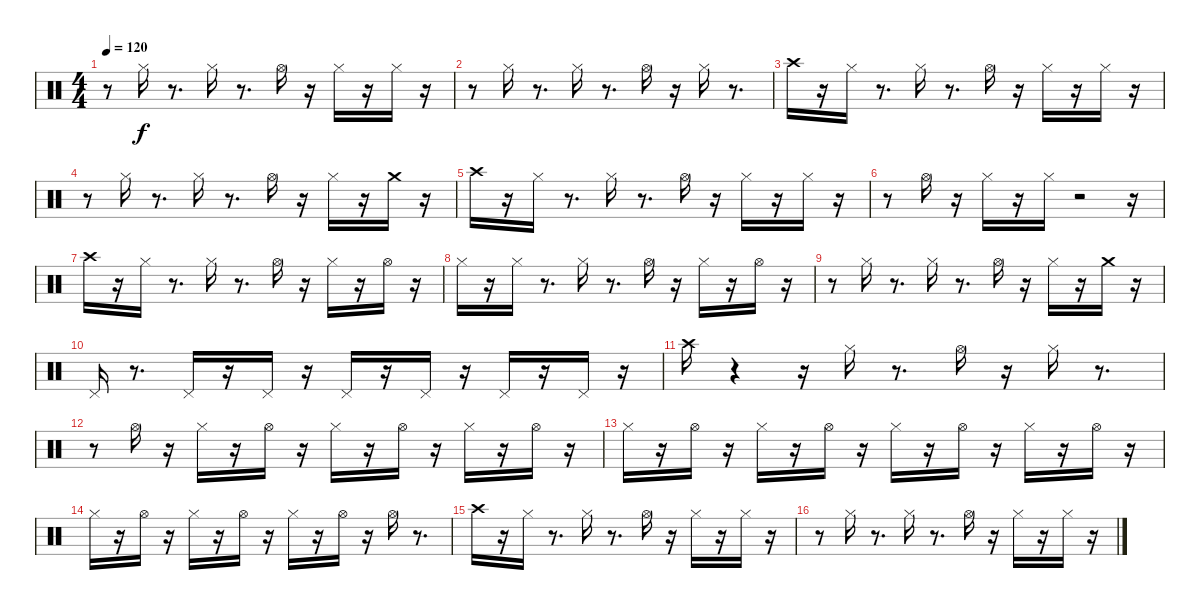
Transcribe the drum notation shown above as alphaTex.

\track "" {instrument percussion}
\staff {score}
\articulation defaults
\ts (4 4)
\tempo 120
\clef neutral
\ks c
r.8{dy f} "Hi-Hat (closed)".16 r.8{d} "Hi-Hat (closed)".16 r.8{d} "Hi-Hat (open)".16 r.16 "Hi-Hat (closed)".16 r.16 "Hi-Hat (closed)".16 r.16 |
r.8 "Hi-Hat (closed)".16 r.8{d} "Hi-Hat (closed)".16 r.8{d} "Hi-Hat (open)".16 r.16 "Hi-Hat (closed)".16 r.8{d} |
"Crash high (hit)".16 r.16 "Hi-Hat (closed)".16 r.8{d} "Hi-Hat (closed)".16 r.8{d} "Hi-Hat (open)".16 r.16 "Hi-Hat (closed)".16 r.16 "Hi-Hat (closed)".16 r.16 |
r.8 "Hi-Hat (closed)".16 r.8{d} "Hi-Hat (closed)".16 r.8{d} "Hi-Hat (open)".16 r.16 "Hi-Hat (closed)".16 r.16 "Crash medium (hit)".16 r.16 |
"Crash high (hit)".16 r.16 "Hi-Hat (closed)".16 r.8{d} "Hi-Hat (closed)".16 r.8{d} "Hi-Hat (open)".16 r.16 "Hi-Hat (closed)".16 r.16 "Hi-Hat (closed)".16 r.16 |
r.8 "Hi-Hat (open)".16 r.16 "Hi-Hat (closed)".16 r.16 "Hi-Hat (closed)".16 r.2 r.16 |
"Crash high (hit)".16 r.16 "Hi-Hat (closed)".16 r.8{d} "Hi-Hat (closed)".16 r.8{d} "Hi-Hat (open)".16 r.16 "Hi-Hat (closed)".16 r.16 "Hi-Hat (open)".16 r.16 |
"Hi-Hat (closed)".16 r.16 "Hi-Hat (closed)".16 r.8{d} "Hi-Hat (closed)".16 r.8{d} "Hi-Hat (open)".16 r.16 "Hi-Hat (closed)".16 r.16 "Hi-Hat (open)".16 r.16 |
r.8 "Hi-Hat (closed)".16 r.8{d} "Hi-Hat (closed)".16 r.8{d} "Hi-Hat (open)".16 r.16 "Hi-Hat (closed)".16 r.16 "Crash medium (hit)".16 r.16 |
"Pedal Hi-Hat (hit)".16 r.8{d} "Pedal Hi-Hat (hit)".16 r.16 "Pedal Hi-Hat (hit)".16 r.16 "Pedal Hi-Hat (hit)".16 r.16 "Pedal Hi-Hat (hit)".16 r.16 "Pedal Hi-Hat (hit)".16 r.16 "Pedal Hi-Hat (hit)".16 r.16 |
"Crash high (hit)".16 r.4 r.16 "Hi-Hat (closed)".16 r.8{d} "Hi-Hat (open)".16 r.16 "Hi-Hat (closed)".16 r.8{d} |
r.8 "Hi-Hat (open)".16 r.16 "Hi-Hat (closed)".16 r.16 "Hi-Hat (open)".16 r.16 "Hi-Hat (closed)".16 r.16 "Hi-Hat (open)".16 r.16 "Hi-Hat (closed)".16 r.16 "Hi-Hat (open)".16 r.16 |
"Hi-Hat (closed)".16 r.16 "Hi-Hat (open)".16 r.16 "Hi-Hat (closed)".16 r.16 "Hi-Hat (open)".16 r.16 "Hi-Hat (closed)".16 r.16 "Hi-Hat (open)".16 r.16 "Hi-Hat (closed)".16 r.16 "Hi-Hat (open)".16 r.16 |
"Hi-Hat (closed)".16 r.16 "Hi-Hat (open)".16 r.16 "Hi-Hat (closed)".16 r.16 "Hi-Hat (open)".16 r.16 "Hi-Hat (closed)".16 r.16 "Hi-Hat (open)".16 r.16 "Hi-Hat (open)".16 r.8{d} |
"Crash high (hit)".16 r.16 "Hi-Hat (closed)".16 r.8{d} "Hi-Hat (closed)".16 r.8{d} "Hi-Hat (open)".16 r.16 "Hi-Hat (closed)".16 r.16 "Hi-Hat (closed)".16 r.16 |
r.8 "Hi-Hat (closed)".16 r.8{d} "Hi-Hat (closed)".16 r.8{d} "Hi-Hat (open)".16 r.16 "Hi-Hat (closed)".16 r.16 "Hi-Hat (closed)".16 r.16
